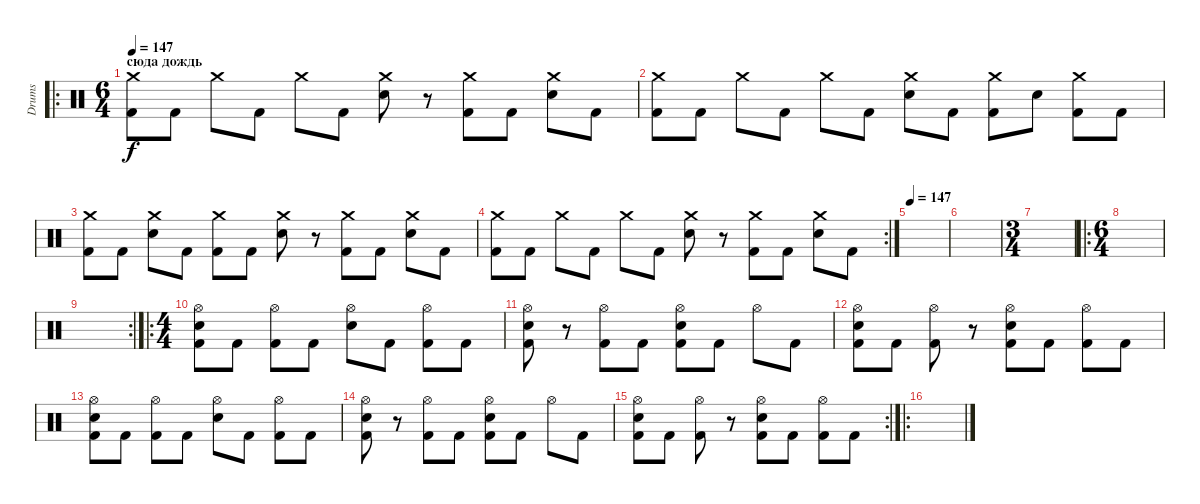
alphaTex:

\track ("Drums" "Drums") {instrument percussion}
\staff {score}
\articulation defaults
\ro
\ts (6 4)
\section ("" "сюда дождь")
\tempo 147
\clef neutral
\ks c
("Crash medium (hit)" "Kick (hit) 2").8{dy f} "Kick (hit) 2".8 "Crash medium (hit)".8 "Kick (hit) 2".8 "Crash medium (hit)".8 "Kick (hit) 2".8 ("Crash medium (hit)" "Electric Snare (hit)").8 r.8 ("Crash medium (hit)" "Kick (hit) 2").8 "Kick (hit) 2".8 ("Crash medium (hit)" "Electric Snare (hit)").8 "Kick (hit) 2".8 |
("Crash medium (hit)" "Kick (hit) 2").8 "Kick (hit) 2".8 "Crash medium (hit)".8 "Kick (hit) 2".8 "Crash medium (hit)".8 "Kick (hit) 2".8 ("Crash medium (hit)" "Electric Snare (hit)").8 "Kick (hit) 2".8 ("Crash medium (hit)" "Kick (hit) 2").8 "Electric Snare (hit)".8 ("Crash medium (hit)" "Kick (hit) 2").8 "Kick (hit) 2".8 |
("Crash medium (hit)" "Kick (hit) 2").8 "Kick (hit) 2".8 ("Crash medium (hit)" "Electric Snare (hit)").8 "Kick (hit) 2".8 ("Crash medium (hit)" "Kick (hit) 2").8 "Kick (hit) 2".8 ("Crash medium (hit)" "Electric Snare (hit)").8 r.8 ("Crash medium (hit)" "Kick (hit) 2").8 "Kick (hit) 2".8 ("Crash medium (hit)" "Electric Snare (hit)").8 "Kick (hit) 2".8 |
\rc 2
("Crash medium (hit)" "Kick (hit) 2").8 "Kick (hit) 2".8 "Crash medium (hit)".8 "Kick (hit) 2".8 "Crash medium (hit)".8 "Kick (hit) 2".8 ("Crash medium (hit)" "Electric Snare (hit)").8 r.8 ("Crash medium (hit)" "Kick (hit) 2").8 "Kick (hit) 2".8 ("Crash medium (hit)" "Electric Snare (hit)").8 "Kick (hit) 2".8 |
\tempo 147
|
|
\ts (3 4)
|
\ro
\ts (6 4)
|
\rc 2
|
\ro
\ts (4 4)
("Hi-Hat (open)" "Electric Snare (hit)" "Kick (hit) 2").8 "Kick (hit) 2".8 ("Hi-Hat (open)" "Kick (hit) 2").8 "Kick (hit) 2".8 ("Hi-Hat (open)" "Electric Snare (hit)").8 "Kick (hit) 2".8 ("Hi-Hat (open)" "Kick (hit) 2").8 "Kick (hit) 2".8 |
("Hi-Hat (open)" "Electric Snare (hit)" "Kick (hit) 2").8 r.8 ("Hi-Hat (open)" "Kick (hit) 2").8 "Kick (hit) 2".8 ("Hi-Hat (open)" "Electric Snare (hit)" "Kick (hit) 2").8 "Kick (hit) 2".8 "Hi-Hat (open)".8 "Kick (hit) 2".8 |
("Hi-Hat (open)" "Electric Snare (hit)" "Kick (hit) 2").8 "Kick (hit) 2".8 ("Hi-Hat (open)" "Kick (hit) 2").8 r.8 ("Hi-Hat (open)" "Electric Snare (hit)" "Kick (hit) 2").8 "Kick (hit) 2".8 ("Hi-Hat (open)" "Kick (hit) 2").8 "Kick (hit) 2".8 |
("Hi-Hat (open)" "Electric Snare (hit)" "Kick (hit) 2").8 "Kick (hit) 2".8 ("Hi-Hat (open)" "Kick (hit) 2").8 "Kick (hit) 2".8 ("Hi-Hat (open)" "Electric Snare (hit)").8 "Kick (hit) 2".8 ("Hi-Hat (open)" "Kick (hit) 2").8 "Kick (hit) 2".8 |
("Hi-Hat (open)" "Electric Snare (hit)" "Kick (hit) 2").8 r.8 ("Hi-Hat (open)" "Kick (hit) 2").8 "Kick (hit) 2".8 ("Hi-Hat (open)" "Electric Snare (hit)" "Kick (hit) 2").8 "Kick (hit) 2".8 "Hi-Hat (open)".8 "Kick (hit) 2".8 |
\rc 2
("Hi-Hat (open)" "Electric Snare (hit)" "Kick (hit) 2").8 "Kick (hit) 2".8 ("Hi-Hat (open)" "Kick (hit) 2").8 r.8 ("Hi-Hat (open)" "Electric Snare (hit)" "Kick (hit) 2").8 "Kick (hit) 2".8 ("Hi-Hat (open)" "Kick (hit) 2").8 "Kick (hit) 2".8 |
\ro
